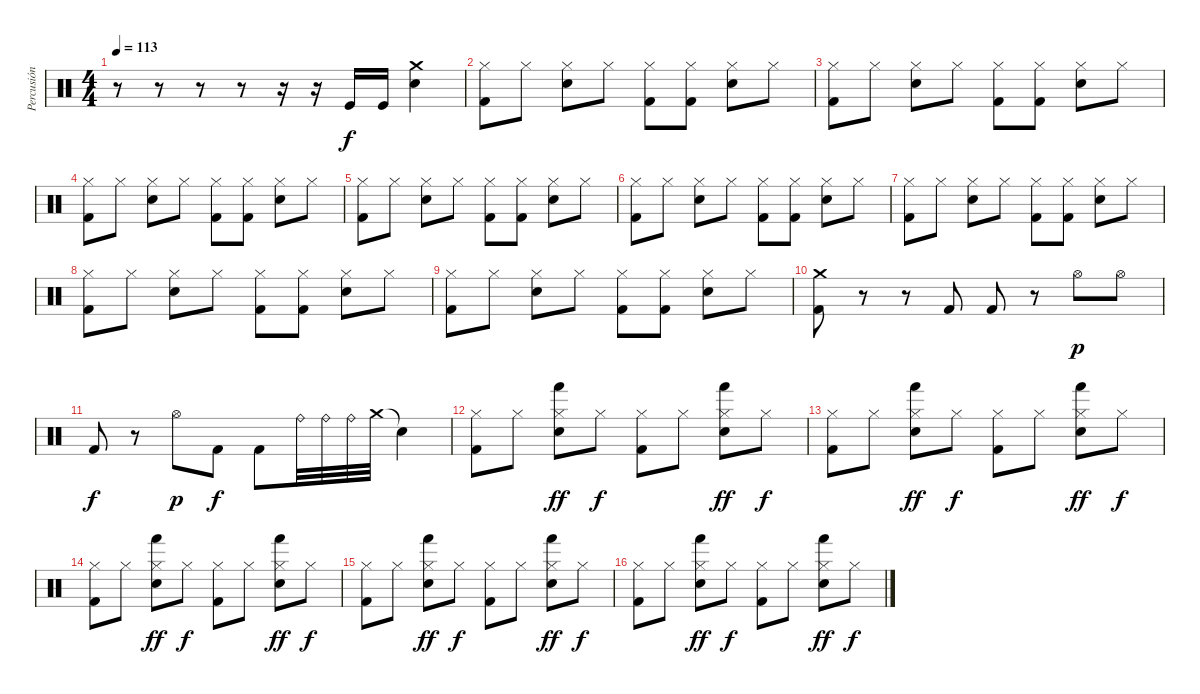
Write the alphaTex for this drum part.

\track ("Percusión" "Percusión") {instrument percussion}
\staff {score}
\articulation defaults
\ts (4 4)
\tempo 113
\clef neutral
\ks c
r.8{dy f} r.8 r.8 r.8 r.16 r.16 "Kick (hit)".16 "Kick (hit)".16 ("Crash medium (hit)" "Electric Snare (hit)").4 |
("Kick (hit) 2" "Hi-Hat (closed)").8 "Hi-Hat (closed)".8 ("Electric Snare (hit)" "Hi-Hat (closed)").8 "Hi-Hat (closed)".8 ("Kick (hit) 2" "Hi-Hat (closed)").8 ("Kick (hit) 2" "Hi-Hat (closed)").8 ("Electric Snare (hit)" "Hi-Hat (closed)").8 "Hi-Hat (closed)".8 |
("Kick (hit) 2" "Hi-Hat (closed)").8 "Hi-Hat (closed)".8 ("Electric Snare (hit)" "Hi-Hat (closed)").8 "Hi-Hat (closed)".8 ("Kick (hit) 2" "Hi-Hat (closed)").8 ("Kick (hit) 2" "Hi-Hat (closed)").8 ("Electric Snare (hit)" "Hi-Hat (closed)").8 "Hi-Hat (closed)".8 |
("Kick (hit) 2" "Hi-Hat (closed)").8 "Hi-Hat (closed)".8 ("Electric Snare (hit)" "Hi-Hat (closed)").8 "Hi-Hat (closed)".8 ("Kick (hit) 2" "Hi-Hat (closed)").8 ("Kick (hit) 2" "Hi-Hat (closed)").8 ("Electric Snare (hit)" "Hi-Hat (closed)").8 "Hi-Hat (closed)".8 |
("Kick (hit) 2" "Hi-Hat (closed)").8 "Hi-Hat (closed)".8 ("Electric Snare (hit)" "Hi-Hat (closed)").8 "Hi-Hat (closed)".8 ("Kick (hit) 2" "Hi-Hat (closed)").8 ("Kick (hit) 2" "Hi-Hat (closed)").8 ("Electric Snare (hit)" "Hi-Hat (closed)").8 "Hi-Hat (closed)".8 |
("Kick (hit) 2" "Hi-Hat (closed)").8 "Hi-Hat (closed)".8 ("Electric Snare (hit)" "Hi-Hat (closed)").8 "Hi-Hat (closed)".8 ("Kick (hit) 2" "Hi-Hat (closed)").8 ("Kick (hit) 2" "Hi-Hat (closed)").8 ("Electric Snare (hit)" "Hi-Hat (closed)").8 "Hi-Hat (closed)".8 |
("Kick (hit) 2" "Hi-Hat (closed)").8 "Hi-Hat (closed)".8 ("Electric Snare (hit)" "Hi-Hat (closed)").8 "Hi-Hat (closed)".8 ("Kick (hit) 2" "Hi-Hat (closed)").8 ("Kick (hit) 2" "Hi-Hat (closed)").8 ("Electric Snare (hit)" "Hi-Hat (closed)").8 "Hi-Hat (closed)".8 |
("Kick (hit) 2" "Hi-Hat (closed)").8 "Hi-Hat (closed)".8 ("Electric Snare (hit)" "Hi-Hat (closed)").8 "Hi-Hat (closed)".8 ("Kick (hit) 2" "Hi-Hat (closed)").8 ("Kick (hit) 2" "Hi-Hat (closed)").8 ("Electric Snare (hit)" "Hi-Hat (closed)").8 "Hi-Hat (closed)".8 |
("Kick (hit) 2" "Hi-Hat (closed)").8 "Hi-Hat (closed)".8 ("Electric Snare (hit)" "Hi-Hat (closed)").8 "Hi-Hat (closed)".8 ("Kick (hit) 2" "Hi-Hat (closed)").8 ("Kick (hit) 2" "Hi-Hat (closed)").8 ("Electric Snare (hit)" "Hi-Hat (closed)").8 "Hi-Hat (closed)".8 |
("Kick (hit) 2" "Crash medium (hit)").8 r.8 r.8 "Kick (hit) 2".8 "Kick (hit) 2".8 r.8 "Hi-Hat (open)".8{dy p} "Hi-Hat (open)".8 |
"Kick (hit) 2".8{dy f} r.8 "Hi-Hat (open)".8{dy p} "Kick (hit) 2".8{dy f} "Kick (hit) 2".8 "Ride (bell)".32 "Ride (bell)".32 "Ride (bell)".32 "Crash medium (hit)".32 "Snare (hit)"{t}.4 |
("Kick (hit) 2" "Hi-Hat (closed)").8 "Hi-Hat (closed)".8 ("Electric Snare (hit)" "Hi-Hat (closed)" "Hand (hit)").8{dy ff} "Hi-Hat (closed)".8{dy f} ("Kick (hit) 2" "Hi-Hat (closed)").8 "Hi-Hat (closed)".8 ("Electric Snare (hit)" "Hi-Hat (closed)" "Hand (hit)").8{dy ff} "Hi-Hat (closed)".8{dy f} |
("Kick (hit) 2" "Hi-Hat (closed)").8 "Hi-Hat (closed)".8 ("Electric Snare (hit)" "Hi-Hat (closed)" "Hand (hit)").8{dy ff} "Hi-Hat (closed)".8{dy f} ("Kick (hit) 2" "Hi-Hat (closed)").8 "Hi-Hat (closed)".8 ("Electric Snare (hit)" "Hi-Hat (closed)" "Hand (hit)").8{dy ff} "Hi-Hat (closed)".8{dy f} |
("Kick (hit) 2" "Hi-Hat (closed)").8 "Hi-Hat (closed)".8 ("Electric Snare (hit)" "Hi-Hat (closed)" "Hand (hit)").8{dy ff} "Hi-Hat (closed)".8{dy f} ("Kick (hit) 2" "Hi-Hat (closed)").8 "Hi-Hat (closed)".8 ("Electric Snare (hit)" "Hi-Hat (closed)" "Hand (hit)").8{dy ff} "Hi-Hat (closed)".8{dy f} |
("Kick (hit) 2" "Hi-Hat (closed)").8 "Hi-Hat (closed)".8 ("Electric Snare (hit)" "Hi-Hat (closed)" "Hand (hit)").8{dy ff} "Hi-Hat (closed)".8{dy f} ("Kick (hit) 2" "Hi-Hat (closed)").8 "Hi-Hat (closed)".8 ("Electric Snare (hit)" "Hi-Hat (closed)" "Hand (hit)").8{dy ff} "Hi-Hat (closed)".8{dy f} |
("Kick (hit) 2" "Hi-Hat (closed)").8 "Hi-Hat (closed)".8 ("Electric Snare (hit)" "Hi-Hat (closed)" "Hand (hit)").8{dy ff} "Hi-Hat (closed)".8{dy f} ("Kick (hit) 2" "Hi-Hat (closed)").8 "Hi-Hat (closed)".8 ("Electric Snare (hit)" "Hi-Hat (closed)" "Hand (hit)").8{dy ff} "Hi-Hat (closed)".8{dy f}
